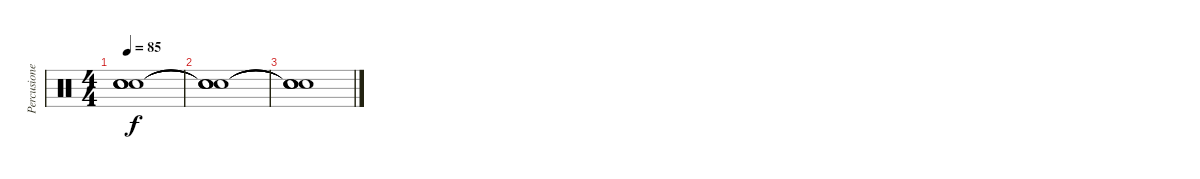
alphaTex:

\track ("Percusiones" "Percusione") {instrument percussion}
\staff {score}
\articulation defaults
\ts (4 4)
\tempo 85
\clef neutral
\ks c
("Snare (hit)"{t} "Snare (hit)"{t} "Snare (hit)"{t} "Snare (hit)"{t}).1{dy f} |
("Snare (hit)"{t} "Snare (hit)"{t} "Snare (hit)"{t} "Snare (hit)"{t}).1 |
("Snare (hit)"{t} "Snare (hit)"{t} "Snare (hit)"{t} "Snare (hit)"{t}).1
